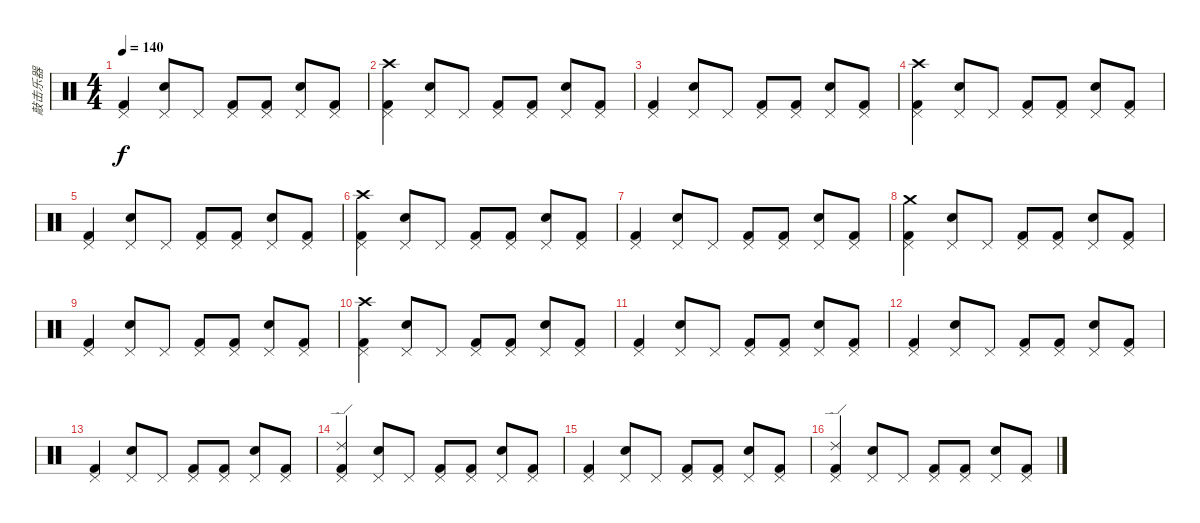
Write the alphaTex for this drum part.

\track ("敲击乐器" "敲击乐器") {instrument percussion}
\staff {score}
\articulation defaults
\ts (4 4)
\tempo 140
\clef neutral
\ks c
("Kick (hit) 2" "Pedal Hi-Hat (hit)").4{dy f} ("Snare (hit) 2" "Pedal Hi-Hat (hit)").8 "Pedal Hi-Hat (hit)".8 ("Kick (hit) 2" "Pedal Hi-Hat (hit)").8 ("Kick (hit) 2" "Pedal Hi-Hat (hit)").8 ("Snare (hit) 2" "Pedal Hi-Hat (hit)").8 ("Kick (hit) 2" "Pedal Hi-Hat (hit)").8 |
("Kick (hit) 2" "Pedal Hi-Hat (hit)" "Crash high (hit)").4 ("Snare (hit) 2" "Pedal Hi-Hat (hit)").8 "Pedal Hi-Hat (hit)".8 ("Kick (hit) 2" "Pedal Hi-Hat (hit)").8 ("Kick (hit) 2" "Pedal Hi-Hat (hit)").8 ("Snare (hit) 2" "Pedal Hi-Hat (hit)").8 ("Kick (hit) 2" "Pedal Hi-Hat (hit)").8 |
("Kick (hit) 2" "Pedal Hi-Hat (hit)").4 ("Snare (hit) 2" "Pedal Hi-Hat (hit)").8 "Pedal Hi-Hat (hit)".8 ("Kick (hit) 2" "Pedal Hi-Hat (hit)").8 ("Kick (hit) 2" "Pedal Hi-Hat (hit)").8 ("Snare (hit) 2" "Pedal Hi-Hat (hit)").8 ("Kick (hit) 2" "Pedal Hi-Hat (hit)").8 |
("Kick (hit) 2" "Pedal Hi-Hat (hit)" "Crash high (hit)").4 ("Snare (hit) 2" "Pedal Hi-Hat (hit)").8 "Pedal Hi-Hat (hit)".8 ("Kick (hit) 2" "Pedal Hi-Hat (hit)").8 ("Kick (hit) 2" "Pedal Hi-Hat (hit)").8 ("Snare (hit) 2" "Pedal Hi-Hat (hit)").8 ("Kick (hit) 2" "Pedal Hi-Hat (hit)").8 |
("Kick (hit) 2" "Pedal Hi-Hat (hit)").4 ("Snare (hit) 2" "Pedal Hi-Hat (hit)").8 "Pedal Hi-Hat (hit)".8 ("Kick (hit) 2" "Pedal Hi-Hat (hit)").8 ("Kick (hit) 2" "Pedal Hi-Hat (hit)").8 ("Snare (hit) 2" "Pedal Hi-Hat (hit)").8 ("Kick (hit) 2" "Pedal Hi-Hat (hit)").8 |
("Kick (hit) 2" "Pedal Hi-Hat (hit)" "Crash high (hit)").4 ("Snare (hit) 2" "Pedal Hi-Hat (hit)").8 "Pedal Hi-Hat (hit)".8 ("Kick (hit) 2" "Pedal Hi-Hat (hit)").8 ("Kick (hit) 2" "Pedal Hi-Hat (hit)").8 ("Snare (hit) 2" "Pedal Hi-Hat (hit)").8 ("Kick (hit) 2" "Pedal Hi-Hat (hit)").8 |
("Kick (hit) 2" "Pedal Hi-Hat (hit)").4 ("Snare (hit) 2" "Pedal Hi-Hat (hit)").8 "Pedal Hi-Hat (hit)".8 ("Kick (hit) 2" "Pedal Hi-Hat (hit)").8 ("Kick (hit) 2" "Pedal Hi-Hat (hit)").8 ("Snare (hit) 2" "Pedal Hi-Hat (hit)").8 ("Kick (hit) 2" "Pedal Hi-Hat (hit)").8 |
("Kick (hit) 2" "Pedal Hi-Hat (hit)" "Crash medium (hit)").4 ("Snare (hit) 2" "Pedal Hi-Hat (hit)").8 "Pedal Hi-Hat (hit)".8 ("Kick (hit) 2" "Pedal Hi-Hat (hit)").8 ("Kick (hit) 2" "Pedal Hi-Hat (hit)").8 ("Snare (hit) 2" "Pedal Hi-Hat (hit)").8 ("Kick (hit) 2" "Pedal Hi-Hat (hit)").8 |
("Kick (hit) 2" "Pedal Hi-Hat (hit)").4 ("Snare (hit) 2" "Pedal Hi-Hat (hit)").8 "Pedal Hi-Hat (hit)".8 ("Kick (hit) 2" "Pedal Hi-Hat (hit)").8 ("Kick (hit) 2" "Pedal Hi-Hat (hit)").8 ("Snare (hit) 2" "Pedal Hi-Hat (hit)").8 ("Kick (hit) 2" "Pedal Hi-Hat (hit)").8 |
("Kick (hit) 2" "Pedal Hi-Hat (hit)" "Crash high (hit)").4 ("Snare (hit) 2" "Pedal Hi-Hat (hit)").8 "Pedal Hi-Hat (hit)".8 ("Kick (hit) 2" "Pedal Hi-Hat (hit)").8 ("Kick (hit) 2" "Pedal Hi-Hat (hit)").8 ("Snare (hit) 2" "Pedal Hi-Hat (hit)").8 ("Kick (hit) 2" "Pedal Hi-Hat (hit)").8 |
("Kick (hit) 2" "Pedal Hi-Hat (hit)").4 ("Snare (hit) 2" "Pedal Hi-Hat (hit)").8 "Pedal Hi-Hat (hit)".8 ("Kick (hit) 2" "Pedal Hi-Hat (hit)").8 ("Kick (hit) 2" "Pedal Hi-Hat (hit)").8 ("Snare (hit) 2" "Pedal Hi-Hat (hit)").8 ("Kick (hit) 2" "Pedal Hi-Hat (hit)").8 |
("Kick (hit) 2" "Pedal Hi-Hat (hit)").4 ("Snare (hit) 2" "Pedal Hi-Hat (hit)").8 "Pedal Hi-Hat (hit)".8 ("Kick (hit) 2" "Pedal Hi-Hat (hit)").8 ("Kick (hit) 2" "Pedal Hi-Hat (hit)").8 ("Snare (hit) 2" "Pedal Hi-Hat (hit)").8 ("Kick (hit) 2" "Pedal Hi-Hat (hit)").8 |
("Kick (hit) 2" "Pedal Hi-Hat (hit)").4 ("Snare (hit) 2" "Pedal Hi-Hat (hit)").8 "Pedal Hi-Hat (hit)".8 ("Kick (hit) 2" "Pedal Hi-Hat (hit)").8 ("Kick (hit) 2" "Pedal Hi-Hat (hit)").8 ("Snare (hit) 2" "Pedal Hi-Hat (hit)").8 ("Kick (hit) 2" "Pedal Hi-Hat (hit)").8 |
("Kick (hit) 2" "Pedal Hi-Hat (hit)" "Ride (edge) 2").4 ("Snare (hit) 2" "Pedal Hi-Hat (hit)").8 "Pedal Hi-Hat (hit)".8 ("Kick (hit) 2" "Pedal Hi-Hat (hit)").8 ("Kick (hit) 2" "Pedal Hi-Hat (hit)").8 ("Snare (hit) 2" "Pedal Hi-Hat (hit)").8 ("Kick (hit) 2" "Pedal Hi-Hat (hit)").8 |
("Kick (hit) 2" "Pedal Hi-Hat (hit)").4 ("Snare (hit) 2" "Pedal Hi-Hat (hit)").8 "Pedal Hi-Hat (hit)".8 ("Kick (hit) 2" "Pedal Hi-Hat (hit)").8 ("Kick (hit) 2" "Pedal Hi-Hat (hit)").8 ("Snare (hit) 2" "Pedal Hi-Hat (hit)").8 ("Kick (hit) 2" "Pedal Hi-Hat (hit)").8 |
("Kick (hit) 2" "Pedal Hi-Hat (hit)" "Ride (edge) 2").4 ("Snare (hit) 2" "Pedal Hi-Hat (hit)").8 "Pedal Hi-Hat (hit)".8 ("Kick (hit) 2" "Pedal Hi-Hat (hit)").8 ("Kick (hit) 2" "Pedal Hi-Hat (hit)").8 ("Snare (hit) 2" "Pedal Hi-Hat (hit)").8 ("Kick (hit) 2" "Pedal Hi-Hat (hit)").8
